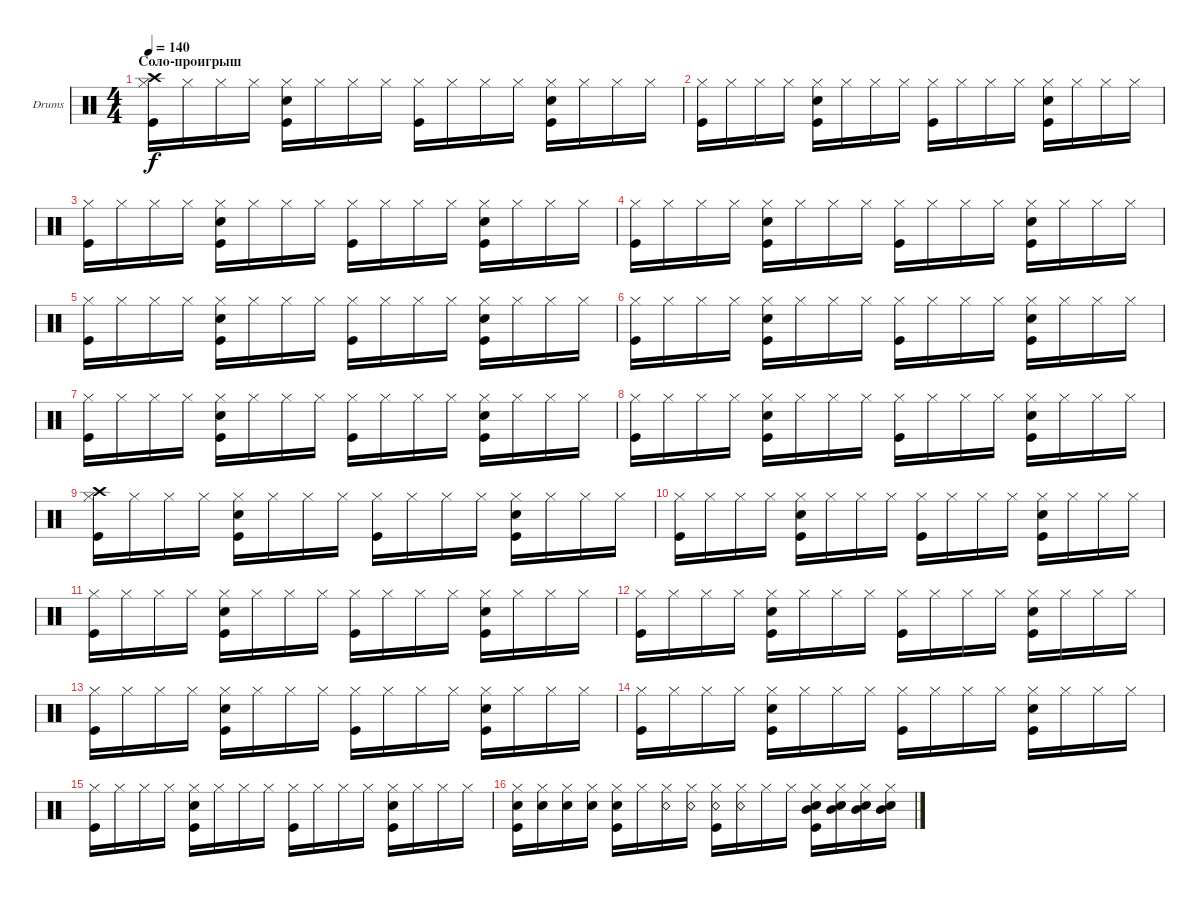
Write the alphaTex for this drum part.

\defaultSystemsLayout 4
\bracketExtendMode groupsimilarinstruments
\firstSystemTrackNameOrientation horizontal
\otherSystemsTrackNameOrientation horizontal
\track ("Drumkit" "Drums") {instrument percussion}
\staff {score}
\articulation defaults
\ts (4 4)
\section ("" "Соло-проигрыш")
\tempo 140
\clef neutral
\ks c
("Hi-Hat (closed)" "Kick (hit)" "Crash high (hit)").16{dy f} "Hi-Hat (closed)".16 "Hi-Hat (closed)".16 "Hi-Hat (closed)".16 ("Hi-Hat (closed)" "Kick (hit)" "Snare (hit) 2").16 "Hi-Hat (closed)".16 "Hi-Hat (closed)".16 "Hi-Hat (closed)".16 ("Hi-Hat (closed)" "Kick (hit)").16 "Hi-Hat (closed)".16 "Hi-Hat (closed)".16 "Hi-Hat (closed)".16 ("Hi-Hat (closed)" "Kick (hit)" "Snare (hit) 2").16 "Hi-Hat (closed)".16 "Hi-Hat (closed)".16 "Hi-Hat (closed)".16 |
("Hi-Hat (closed)" "Kick (hit)").16 "Hi-Hat (closed)".16 "Hi-Hat (closed)".16 "Hi-Hat (closed)".16 ("Hi-Hat (closed)" "Kick (hit)" "Snare (hit) 2").16 "Hi-Hat (closed)".16 "Hi-Hat (closed)".16 "Hi-Hat (closed)".16 ("Hi-Hat (closed)" "Kick (hit)").16 "Hi-Hat (closed)".16 "Hi-Hat (closed)".16 "Hi-Hat (closed)".16 ("Hi-Hat (closed)" "Kick (hit)" "Snare (hit) 2").16 "Hi-Hat (closed)".16 "Hi-Hat (closed)".16 "Hi-Hat (closed)".16 |
("Hi-Hat (closed)" "Kick (hit)").16 "Hi-Hat (closed)".16 "Hi-Hat (closed)".16 "Hi-Hat (closed)".16 ("Hi-Hat (closed)" "Kick (hit)" "Snare (hit) 2").16 "Hi-Hat (closed)".16 "Hi-Hat (closed)".16 "Hi-Hat (closed)".16 ("Hi-Hat (closed)" "Kick (hit)").16 "Hi-Hat (closed)".16 "Hi-Hat (closed)".16 "Hi-Hat (closed)".16 ("Hi-Hat (closed)" "Kick (hit)" "Snare (hit) 2").16 "Hi-Hat (closed)".16 "Hi-Hat (closed)".16 "Hi-Hat (closed)".16 |
("Hi-Hat (closed)" "Kick (hit)").16 "Hi-Hat (closed)".16 "Hi-Hat (closed)".16 "Hi-Hat (closed)".16 ("Hi-Hat (closed)" "Kick (hit)" "Snare (hit) 2").16 "Hi-Hat (closed)".16 "Hi-Hat (closed)".16 "Hi-Hat (closed)".16 ("Hi-Hat (closed)" "Kick (hit)").16 "Hi-Hat (closed)".16 "Hi-Hat (closed)".16 "Hi-Hat (closed)".16 ("Hi-Hat (closed)" "Kick (hit)" "Snare (hit) 2").16 "Hi-Hat (closed)".16 "Hi-Hat (closed)".16 "Hi-Hat (closed)".16 |
("Hi-Hat (closed)" "Kick (hit)").16 "Hi-Hat (closed)".16 "Hi-Hat (closed)".16 "Hi-Hat (closed)".16 ("Hi-Hat (closed)" "Kick (hit)" "Snare (hit) 2").16 "Hi-Hat (closed)".16 "Hi-Hat (closed)".16 "Hi-Hat (closed)".16 ("Hi-Hat (closed)" "Kick (hit)").16 "Hi-Hat (closed)".16 "Hi-Hat (closed)".16 "Hi-Hat (closed)".16 ("Hi-Hat (closed)" "Kick (hit)" "Snare (hit) 2").16 "Hi-Hat (closed)".16 "Hi-Hat (closed)".16 "Hi-Hat (closed)".16 |
("Hi-Hat (closed)" "Kick (hit)").16 "Hi-Hat (closed)".16 "Hi-Hat (closed)".16 "Hi-Hat (closed)".16 ("Hi-Hat (closed)" "Kick (hit)" "Snare (hit) 2").16 "Hi-Hat (closed)".16 "Hi-Hat (closed)".16 "Hi-Hat (closed)".16 ("Hi-Hat (closed)" "Kick (hit)").16 "Hi-Hat (closed)".16 "Hi-Hat (closed)".16 "Hi-Hat (closed)".16 ("Hi-Hat (closed)" "Kick (hit)" "Snare (hit) 2").16 "Hi-Hat (closed)".16 "Hi-Hat (closed)".16 "Hi-Hat (closed)".16 |
("Hi-Hat (closed)" "Kick (hit)").16 "Hi-Hat (closed)".16 "Hi-Hat (closed)".16 "Hi-Hat (closed)".16 ("Hi-Hat (closed)" "Kick (hit)" "Snare (hit) 2").16 "Hi-Hat (closed)".16 "Hi-Hat (closed)".16 "Hi-Hat (closed)".16 ("Hi-Hat (closed)" "Kick (hit)").16 "Hi-Hat (closed)".16 "Hi-Hat (closed)".16 "Hi-Hat (closed)".16 ("Hi-Hat (closed)" "Kick (hit)" "Snare (hit) 2").16 "Hi-Hat (closed)".16 "Hi-Hat (closed)".16 "Hi-Hat (closed)".16 |
("Hi-Hat (closed)" "Kick (hit)").16 "Hi-Hat (closed)".16 "Hi-Hat (closed)".16 "Hi-Hat (closed)".16 ("Hi-Hat (closed)" "Kick (hit)" "Snare (hit) 2").16 "Hi-Hat (closed)".16 "Hi-Hat (closed)".16 "Hi-Hat (closed)".16 ("Hi-Hat (closed)" "Kick (hit)").16 "Hi-Hat (closed)".16 "Hi-Hat (closed)".16 "Hi-Hat (closed)".16 ("Hi-Hat (closed)" "Kick (hit)" "Snare (hit) 2").16 "Hi-Hat (closed)".16 "Hi-Hat (closed)".16 "Hi-Hat (closed)".16 |
("Hi-Hat (closed)" "Kick (hit)" "Crash high (hit)").16 "Hi-Hat (closed)".16 "Hi-Hat (closed)".16 "Hi-Hat (closed)".16 ("Hi-Hat (closed)" "Kick (hit)" "Snare (hit) 2").16 "Hi-Hat (closed)".16 "Hi-Hat (closed)".16 "Hi-Hat (closed)".16 ("Hi-Hat (closed)" "Kick (hit)").16 "Hi-Hat (closed)".16 "Hi-Hat (closed)".16 "Hi-Hat (closed)".16 ("Hi-Hat (closed)" "Kick (hit)" "Snare (hit) 2").16 "Hi-Hat (closed)".16 "Hi-Hat (closed)".16 "Hi-Hat (closed)".16 |
("Hi-Hat (closed)" "Kick (hit)").16 "Hi-Hat (closed)".16 "Hi-Hat (closed)".16 "Hi-Hat (closed)".16 ("Hi-Hat (closed)" "Kick (hit)" "Snare (hit) 2").16 "Hi-Hat (closed)".16 "Hi-Hat (closed)".16 "Hi-Hat (closed)".16 ("Hi-Hat (closed)" "Kick (hit)").16 "Hi-Hat (closed)".16 "Hi-Hat (closed)".16 "Hi-Hat (closed)".16 ("Hi-Hat (closed)" "Kick (hit)" "Snare (hit) 2").16 "Hi-Hat (closed)".16 "Hi-Hat (closed)".16 "Hi-Hat (closed)".16 |
("Hi-Hat (closed)" "Kick (hit)").16 "Hi-Hat (closed)".16 "Hi-Hat (closed)".16 "Hi-Hat (closed)".16 ("Hi-Hat (closed)" "Kick (hit)" "Snare (hit) 2").16 "Hi-Hat (closed)".16 "Hi-Hat (closed)".16 "Hi-Hat (closed)".16 ("Hi-Hat (closed)" "Kick (hit)").16 "Hi-Hat (closed)".16 "Hi-Hat (closed)".16 "Hi-Hat (closed)".16 ("Hi-Hat (closed)" "Kick (hit)" "Snare (hit) 2").16 "Hi-Hat (closed)".16 "Hi-Hat (closed)".16 "Hi-Hat (closed)".16 |
("Hi-Hat (closed)" "Kick (hit)").16 "Hi-Hat (closed)".16 "Hi-Hat (closed)".16 "Hi-Hat (closed)".16 ("Hi-Hat (closed)" "Kick (hit)" "Snare (hit) 2").16 "Hi-Hat (closed)".16 "Hi-Hat (closed)".16 "Hi-Hat (closed)".16 ("Hi-Hat (closed)" "Kick (hit)").16 "Hi-Hat (closed)".16 "Hi-Hat (closed)".16 "Hi-Hat (closed)".16 ("Hi-Hat (closed)" "Kick (hit)" "Snare (hit) 2").16 "Hi-Hat (closed)".16 "Hi-Hat (closed)".16 "Hi-Hat (closed)".16 |
("Hi-Hat (closed)" "Kick (hit)").16 "Hi-Hat (closed)".16 "Hi-Hat (closed)".16 "Hi-Hat (closed)".16 ("Hi-Hat (closed)" "Kick (hit)" "Snare (hit) 2").16 "Hi-Hat (closed)".16 "Hi-Hat (closed)".16 "Hi-Hat (closed)".16 ("Hi-Hat (closed)" "Kick (hit)").16 "Hi-Hat (closed)".16 "Hi-Hat (closed)".16 "Hi-Hat (closed)".16 ("Hi-Hat (closed)" "Kick (hit)" "Snare (hit) 2").16 "Hi-Hat (closed)".16 "Hi-Hat (closed)".16 "Hi-Hat (closed)".16 |
("Hi-Hat (closed)" "Kick (hit)").16 "Hi-Hat (closed)".16 "Hi-Hat (closed)".16 "Hi-Hat (closed)".16 ("Hi-Hat (closed)" "Kick (hit)" "Snare (hit) 2").16 "Hi-Hat (closed)".16 "Hi-Hat (closed)".16 "Hi-Hat (closed)".16 ("Hi-Hat (closed)" "Kick (hit)").16 "Hi-Hat (closed)".16 "Hi-Hat (closed)".16 "Hi-Hat (closed)".16 ("Hi-Hat (closed)" "Kick (hit)" "Snare (hit) 2").16 "Hi-Hat (closed)".16 "Hi-Hat (closed)".16 "Hi-Hat (closed)".16 |
("Hi-Hat (closed)" "Kick (hit)").16 "Hi-Hat (closed)".16 "Hi-Hat (closed)".16 "Hi-Hat (closed)".16 ("Hi-Hat (closed)" "Kick (hit)" "Snare (hit) 2").16 "Hi-Hat (closed)".16 "Hi-Hat (closed)".16 "Hi-Hat (closed)".16 ("Hi-Hat (closed)" "Kick (hit)").16 "Hi-Hat (closed)".16 "Hi-Hat (closed)".16 "Hi-Hat (closed)".16 ("Hi-Hat (closed)" "Kick (hit)" "Snare (hit) 2").16 "Hi-Hat (closed)".16 "Hi-Hat (closed)".16 "Hi-Hat (closed)".16 |
("Hi-Hat (closed)" "Kick (hit)" "Snare (hit) 2").16 ("Hi-Hat (closed)" "Snare (hit) 2").16 ("Hi-Hat (closed)" "Snare (hit) 2").16 ("Hi-Hat (closed)" "Snare (hit) 2").16 ("Hi-Hat (closed)" "Kick (hit)" "Snare (hit) 2").16 "Hi-Hat (closed)".16 ("Hi-Hat (closed)" "Snare (rim shot)").16 ("Hi-Hat (closed)" "Snare (rim shot)").16 ("Hi-Hat (closed)" "Kick (hit)" "Snare (rim shot)").16 ("Hi-Hat (closed)" "Snare (rim shot)").16 "Hi-Hat (closed)".16 "Hi-Hat (closed)".16 ("Hi-Hat (closed)" "Kick (hit)" "Snare (hit) 2" "Mid Tom (hit)").16 ("Hi-Hat (closed)" "Snare (hit) 2" "Mid Tom (hit)").16 ("Hi-Hat (closed)" "Snare (hit) 2" "Mid Tom (hit)").16 ("Hi-Hat (closed)" "Snare (hit) 2" "Mid Tom (hit)").16
